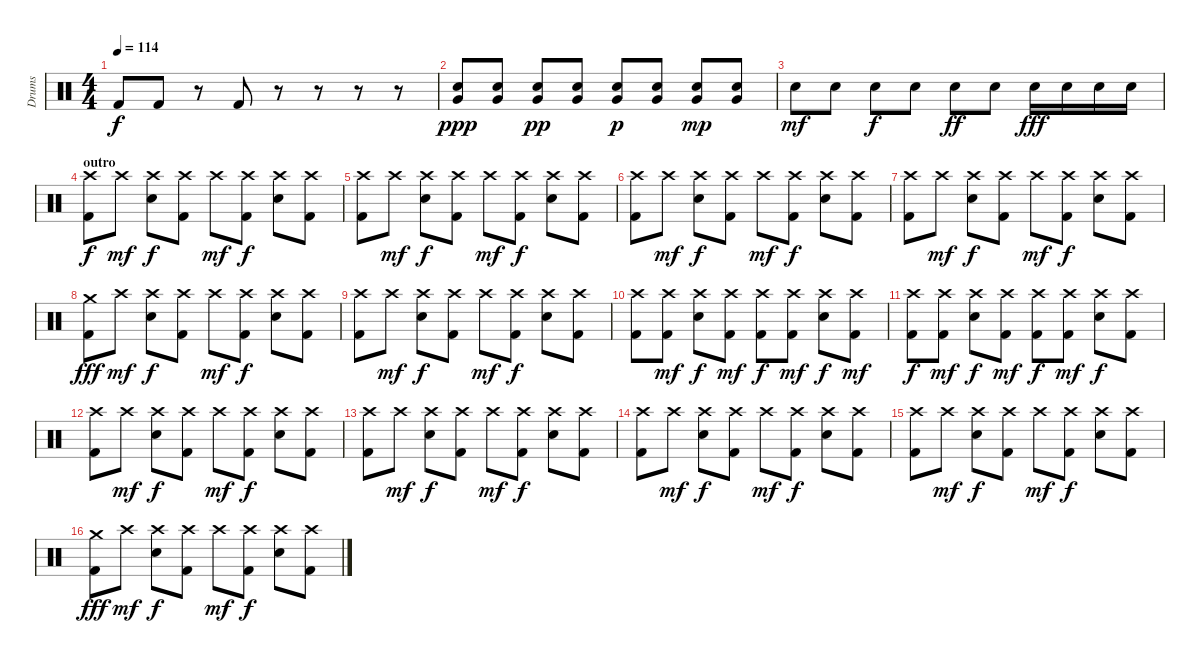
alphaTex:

\track ("Drums" "Drums") {instrument percussion}
\staff {score}
\articulation defaults
\ts (4 4)
\tempo 114
\clef neutral
\ks c "Kick (hit) 2".8{dy f} "Kick (hit) 2".8
r.8 "Kick (hit) 2".8 r.8 r.8 r.8 r.8{volume 9} |
("Very Low Tom (hit)" "Snare (hit) 2").8{dy ppp volume 16} ("Very Low Tom (hit)" "Snare (hit) 2").8 ("Very Low Tom (hit)" "Snare (hit) 2").8{dy pp} ("Very Low Tom (hit)" "Snare (hit) 2").8 ("Very Low Tom (hit)" "Snare (hit) 2").8{dy p} ("Very Low Tom (hit)" "Snare (hit) 2").8 ("Very Low Tom (hit)" "Snare (hit) 2").8{dy mp} ("Very Low Tom (hit)" "Snare (hit) 2").8 |
"Snare (hit) 2".8{dy mf} "Snare (hit) 2".8 "Snare (hit) 2".8{dy f} "Snare (hit) 2".8 "Snare (hit) 2".8{dy ff} "Snare (hit) 2".8 "Snare (hit) 2".16{dy fff} "Snare (hit) 2".16 "Snare (hit) 2".16 "Snare (hit) 2".16 |
\section ("" "outro")
("Crash high (hit)" "Kick (hit) 2").8{dy f} "Crash high (hit)".8{dy mf} ("Crash high (hit)" "Snare (hit) 2").8{dy f} ("Crash high (hit)" "Kick (hit) 2").8 "Crash high (hit)".8{dy mf} ("Crash high (hit)" "Kick (hit) 2").8{dy f} ("Crash high (hit)" "Snare (hit) 2").8 ("Crash high (hit)" "Kick (hit) 2").8 |
("Crash high (hit)" "Kick (hit) 2").8 "Crash high (hit)".8{dy mf} ("Crash high (hit)" "Snare (hit) 2").8{dy f} ("Crash high (hit)" "Kick (hit) 2").8 "Crash high (hit)".8{dy mf} ("Crash high (hit)" "Kick (hit) 2").8{dy f} ("Crash high (hit)" "Snare (hit) 2").8 ("Crash high (hit)" "Kick (hit) 2").8 |
("Crash high (hit)" "Kick (hit) 2").8 "Crash high (hit)".8{dy mf} ("Crash high (hit)" "Snare (hit) 2").8{dy f} ("Crash high (hit)" "Kick (hit) 2").8 "Crash high (hit)".8{dy mf} ("Crash high (hit)" "Kick (hit) 2").8{dy f} ("Crash high (hit)" "Snare (hit) 2").8 ("Crash high (hit)" "Kick (hit) 2").8 |
("Crash high (hit)" "Kick (hit) 2").8 "Crash high (hit)".8{dy mf} ("Crash high (hit)" "Snare (hit) 2").8{dy f} ("Crash high (hit)" "Kick (hit) 2").8 "Crash high (hit)".8{dy mf} ("Crash high (hit)" "Kick (hit) 2").8{dy f} ("Crash high (hit)" "Snare (hit) 2").8 ("Crash high (hit)" "Kick (hit) 2").8 |
("Crash medium (hit)" "Kick (hit) 2").8{dy fff} "Crash high (hit)".8{dy mf} ("Crash high (hit)" "Snare (hit) 2").8{dy f} ("Crash high (hit)" "Kick (hit) 2").8 "Crash high (hit)".8{dy mf} ("Crash high (hit)" "Kick (hit) 2").8{dy f} ("Crash high (hit)" "Snare (hit) 2").8 ("Crash high (hit)" "Kick (hit) 2").8 |
("Crash high (hit)" "Kick (hit) 2").8 "Crash high (hit)".8{dy mf} ("Crash high (hit)" "Snare (hit) 2").8{dy f} ("Crash high (hit)" "Kick (hit) 2").8 "Crash high (hit)".8{dy mf} ("Crash high (hit)" "Kick (hit) 2").8{dy f} ("Crash high (hit)" "Snare (hit) 2").8 ("Crash high (hit)" "Kick (hit) 2").8 |
("Crash high (hit)" "Kick (hit) 2").8 ("Crash high (hit)" "Kick (hit) 2").8{dy mf} ("Crash high (hit)" "Snare (hit) 2").8{dy f} ("Crash high (hit)" "Kick (hit) 2").8{dy mf} ("Crash high (hit)" "Kick (hit) 2").8{dy f} ("Crash high (hit)" "Kick (hit) 2").8{dy mf} ("Crash high (hit)" "Snare (hit) 2").8{dy f} ("Crash high (hit)" "Kick (hit) 2").8{dy mf} |
("Crash high (hit)" "Kick (hit) 2").8{dy f} ("Crash high (hit)" "Kick (hit) 2").8{dy mf} ("Crash high (hit)" "Snare (hit) 2").8{dy f} ("Crash high (hit)" "Kick (hit) 2").8{dy mf} ("Crash high (hit)" "Kick (hit) 2").8{dy f} ("Crash high (hit)" "Kick (hit) 2").8{dy mf} ("Crash high (hit)" "Snare (hit) 2").8{dy f} ("Crash high (hit)" "Kick (hit) 2").8 |
("Crash high (hit)" "Kick (hit) 2").8 "Crash high (hit)".8{dy mf} ("Crash high (hit)" "Snare (hit) 2").8{dy f} ("Crash high (hit)" "Kick (hit) 2").8 "Crash high (hit)".8{dy mf} ("Crash high (hit)" "Kick (hit) 2").8{dy f} ("Crash high (hit)" "Snare (hit) 2").8 ("Crash high (hit)" "Kick (hit) 2").8 |
("Crash high (hit)" "Kick (hit) 2").8 "Crash high (hit)".8{dy mf} ("Crash high (hit)" "Snare (hit) 2").8{dy f} ("Crash high (hit)" "Kick (hit) 2").8 "Crash high (hit)".8{dy mf} ("Crash high (hit)" "Kick (hit) 2").8{dy f} ("Crash high (hit)" "Snare (hit) 2").8 ("Crash high (hit)" "Kick (hit) 2").8 |
("Crash high (hit)" "Kick (hit) 2").8 "Crash high (hit)".8{dy mf} ("Crash high (hit)" "Snare (hit) 2").8{dy f} ("Crash high (hit)" "Kick (hit) 2").8 "Crash high (hit)".8{dy mf} ("Crash high (hit)" "Kick (hit) 2").8{dy f} ("Crash high (hit)" "Snare (hit) 2").8 ("Crash high (hit)" "Kick (hit) 2").8 |
("Crash high (hit)" "Kick (hit) 2").8 "Crash high (hit)".8{dy mf} ("Crash high (hit)" "Snare (hit) 2").8{dy f} ("Crash high (hit)" "Kick (hit) 2").8 "Crash high (hit)".8{dy mf} ("Crash high (hit)" "Kick (hit) 2").8{dy f} ("Crash high (hit)" "Snare (hit) 2").8 ("Crash high (hit)" "Kick (hit) 2").8 |
("Crash medium (hit)" "Kick (hit) 2").8{dy fff} "Crash high (hit)".8{dy mf} ("Crash high (hit)" "Snare (hit) 2").8{dy f} ("Crash high (hit)" "Kick (hit) 2").8 "Crash high (hit)".8{dy mf} ("Crash high (hit)" "Kick (hit) 2").8{dy f} ("Crash high (hit)" "Snare (hit) 2").8 ("Crash high (hit)" "Kick (hit) 2").8
